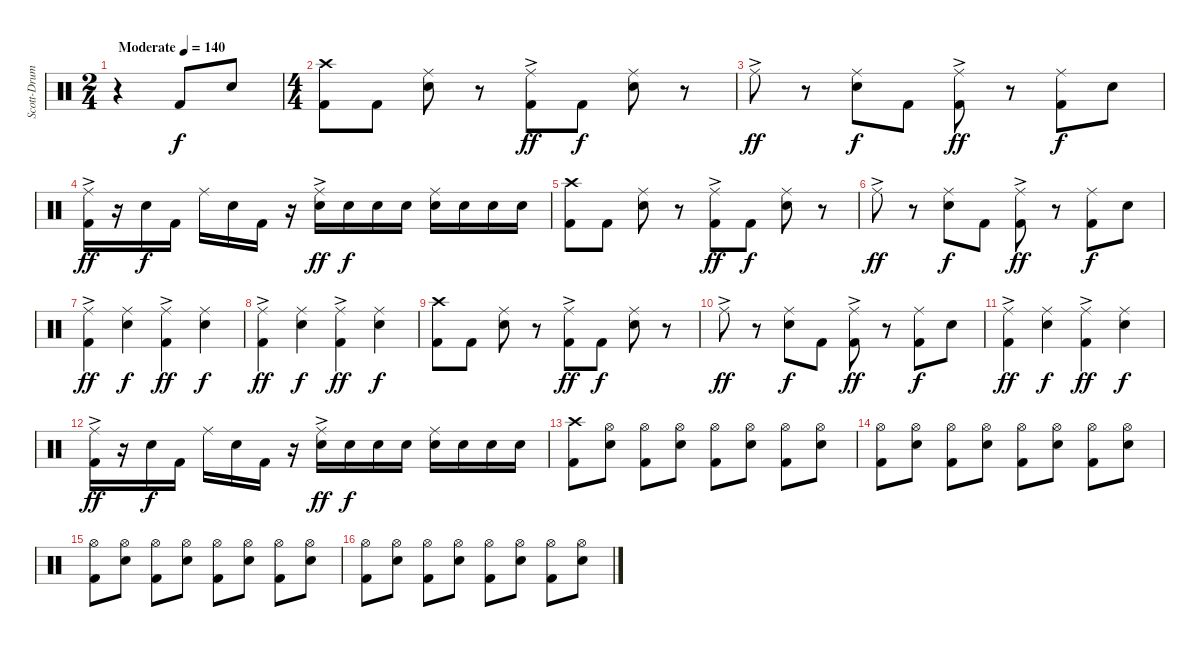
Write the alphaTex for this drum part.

\track ("Scott-Drums" "Scott-Drum") {instrument percussion}
\staff {score}
\articulation defaults
\ts (2 4)
\tempo (140 "Moderate")
\clef neutral
\ks c
r.4{dy f} "Kick (hit) 2".8 "Snare (hit) 2".8 |
\ts (4 4)
("Kick (hit) 2" "Crash high (hit)").8 "Kick (hit) 2".8 ("Snare (hit) 2" "Ride (middle)").8 r.8 ("Kick (hit) 2" "Ride (middle)"{ac}).8{dy ff} "Kick (hit) 2".8{dy f} ("Snare (hit) 2" "Ride (middle)").8 r.8 |
"Ride (middle)"{ac}.8{dy ff} r.8 ("Snare (hit) 2" "Ride (middle)").8{dy f} "Kick (hit) 2".8 ("Kick (hit) 2" "Ride (middle)"{ac}).8{dy ff} r.8 ("Kick (hit) 2" "Ride (middle)").8{dy f} "Snare (hit) 2".8 |
("Kick (hit) 2" "Ride (middle)"{ac}).16{dy ff} r.16 "Snare (hit) 2".16{dy f} "Kick (hit) 2".16 "Ride (middle)".16 "Snare (hit) 2".16 "Kick (hit) 2".16 r.16 ("Snare (hit) 2" "Ride (middle)"{ac}).16{dy ff} "Snare (hit) 2".16{dy f} "Snare (hit) 2".16 "Snare (hit) 2".16 ("Snare (hit) 2" "Ride (middle)").16 "Snare (hit) 2".16 "Snare (hit) 2".16 "Snare (hit) 2".16 |
("Kick (hit) 2" "Crash high (hit)").8 "Kick (hit) 2".8 ("Snare (hit) 2" "Ride (middle)").8 r.8 ("Kick (hit) 2" "Ride (middle)"{ac}).8{dy ff} "Kick (hit) 2".8{dy f} ("Snare (hit) 2" "Ride (middle)").8 r.8 |
"Ride (middle)"{ac}.8{dy ff} r.8 ("Snare (hit) 2" "Ride (middle)").8{dy f} "Kick (hit) 2".8 ("Kick (hit) 2" "Ride (middle)"{ac}).8{dy ff} r.8 ("Kick (hit) 2" "Ride (middle)").8{dy f} "Snare (hit) 2".8 |
("Kick (hit) 2" "Ride (middle)"{ac}).4{dy ff} ("Snare (hit) 2" "Ride (middle)").4{dy f} ("Kick (hit) 2" "Ride (middle)"{ac}).4{dy ff} ("Snare (hit) 2" "Ride (middle)").4{dy f} |
("Kick (hit) 2" "Ride (middle)"{ac}).4{dy ff} ("Snare (hit) 2" "Ride (middle)").4{dy f} ("Kick (hit) 2" "Ride (middle)"{ac}).4{dy ff} ("Snare (hit) 2" "Ride (middle)").4{dy f} |
("Kick (hit) 2" "Crash high (hit)").8 "Kick (hit) 2".8 ("Snare (hit) 2" "Ride (middle)").8 r.8 ("Kick (hit) 2" "Ride (middle)"{ac}).8{dy ff} "Kick (hit) 2".8{dy f} ("Snare (hit) 2" "Ride (middle)").8 r.8 |
"Ride (middle)"{ac}.8{dy ff} r.8 ("Snare (hit) 2" "Ride (middle)").8{dy f} "Kick (hit) 2".8 ("Kick (hit) 2" "Ride (middle)"{ac}).8{dy ff} r.8 ("Kick (hit) 2" "Ride (middle)").8{dy f} "Snare (hit) 2".8 |
("Kick (hit) 2" "Ride (middle)"{ac}).4{dy ff} ("Snare (hit) 2" "Ride (middle)").4{dy f} ("Kick (hit) 2" "Ride (middle)"{ac}).4{dy ff} ("Snare (hit) 2" "Ride (middle)").4{dy f} |
("Kick (hit) 2" "Ride (middle)"{ac}).16{dy ff} r.16 "Snare (hit) 2".16{dy f} "Kick (hit) 2".16 "Ride (middle)".16 "Snare (hit) 2".16 "Kick (hit) 2".16 r.16 ("Snare (hit) 2" "Ride (middle)"{ac}).16{dy ff} "Snare (hit) 2".16{dy f} "Snare (hit) 2".16 "Snare (hit) 2".16 ("Snare (hit) 2" "Ride (middle)").16 "Snare (hit) 2".16 "Snare (hit) 2".16 "Snare (hit) 2".16 |
("Kick (hit) 2" "Crash high (hit)").8 ("Snare (hit) 2" "Hi-Hat (open)").8 ("Kick (hit) 2" "Hi-Hat (open)").8 ("Snare (hit) 2" "Hi-Hat (open)").8 ("Kick (hit) 2" "Hi-Hat (open)").8 ("Snare (hit) 2" "Hi-Hat (open)").8 ("Kick (hit) 2" "Hi-Hat (open)").8 ("Snare (hit) 2" "Hi-Hat (open)").8 |
("Kick (hit) 2" "Hi-Hat (open)").8 ("Snare (hit) 2" "Hi-Hat (open)").8 ("Kick (hit) 2" "Hi-Hat (open)").8 ("Snare (hit) 2" "Hi-Hat (open)").8 ("Kick (hit) 2" "Hi-Hat (open)").8 ("Snare (hit) 2" "Hi-Hat (open)").8 ("Kick (hit) 2" "Hi-Hat (open)").8 ("Snare (hit) 2" "Hi-Hat (open)").8 |
("Kick (hit) 2" "Hi-Hat (open)").8 ("Snare (hit) 2" "Hi-Hat (open)").8 ("Kick (hit) 2" "Hi-Hat (open)").8 ("Snare (hit) 2" "Hi-Hat (open)").8 ("Kick (hit) 2" "Hi-Hat (open)").8 ("Snare (hit) 2" "Hi-Hat (open)").8 ("Kick (hit) 2" "Hi-Hat (open)").8 ("Snare (hit) 2" "Hi-Hat (open)").8 |
("Kick (hit) 2" "Hi-Hat (open)").8 ("Snare (hit) 2" "Hi-Hat (open)").8 ("Kick (hit) 2" "Hi-Hat (open)").8 ("Snare (hit) 2" "Hi-Hat (open)").8 ("Kick (hit) 2" "Hi-Hat (open)").8 ("Snare (hit) 2" "Hi-Hat (open)").8 ("Kick (hit) 2" "Hi-Hat (open)").8 ("Snare (hit) 2" "Hi-Hat (open)").8
